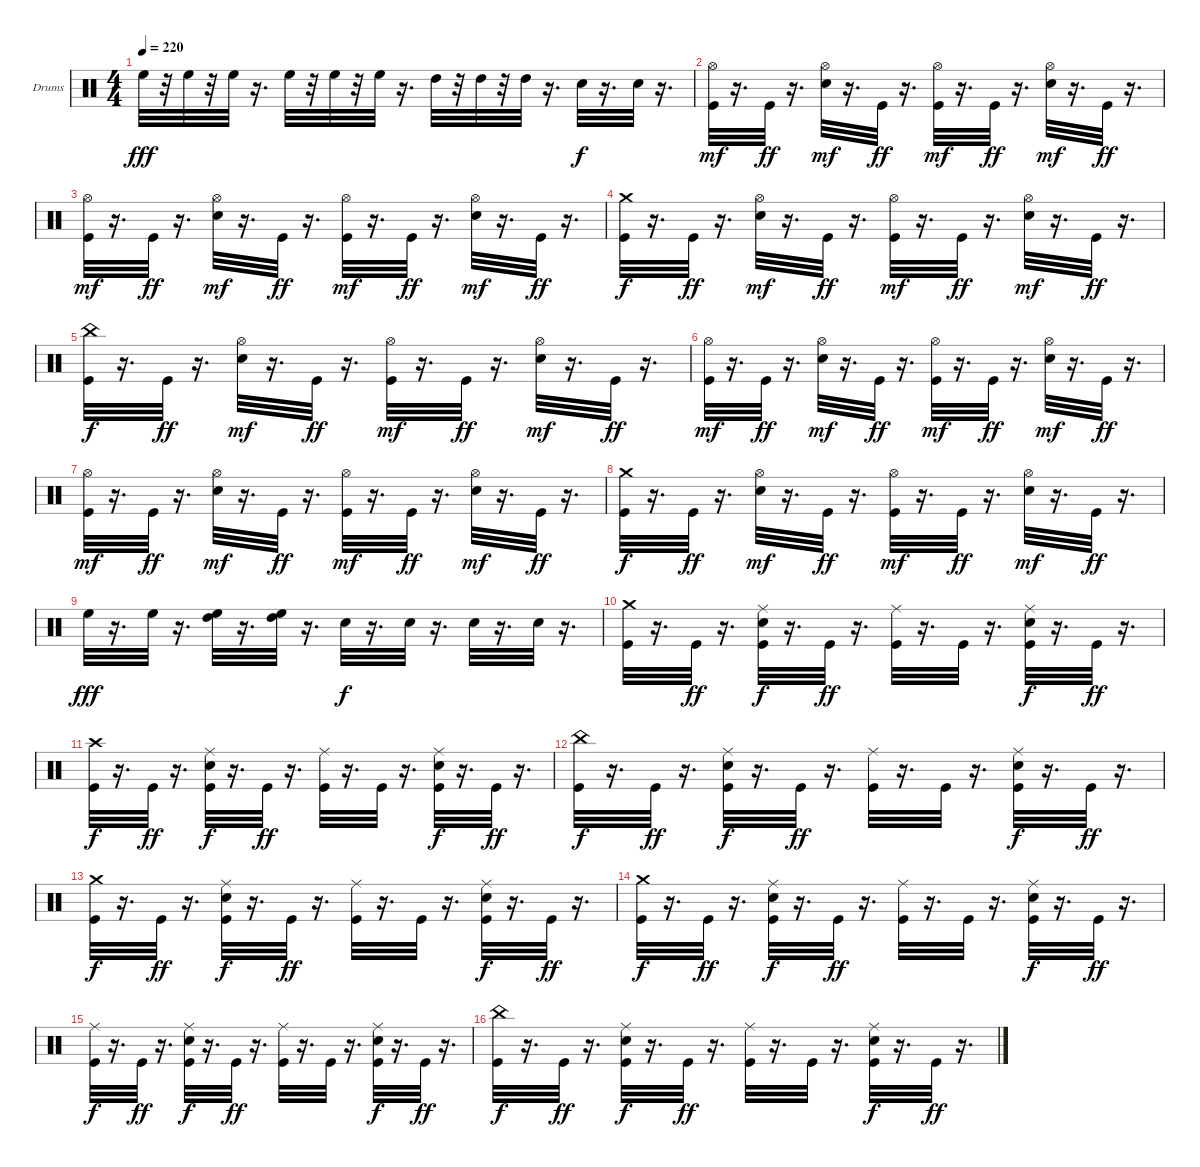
\defaultSystemsLayout 4
\bracketExtendMode groupsimilarinstruments
\firstSystemTrackNameOrientation horizontal
\otherSystemsTrackNameOrientation horizontal
\track ("Дмитрий Кривенков" "Drums") {instrument percussion}
\staff {score}
\articulation defaults
\ts (4 4)
\tempo 220
\clef neutral
\ks c "High Floor Tom (hit)".32{dy fff}
r.32 "High Floor Tom (hit)".32 r.32 "High Floor Tom (hit)".32 r.16{d} "High Floor Tom (hit)".32 r.32 "High Floor Tom (hit)".32 r.32 "High Floor Tom (hit)".32 r.16{d} "High Tom (hit)".32 r.32 "High Tom (hit)".32 r.32 "High Tom (hit)".32 r.16{d} "Snare (hit) 2".32{dy f} r.16{d} "Snare (hit) 2".32 r.16{d} |
("Hi-Hat (open)" "Kick (hit)").32{dy mf} r.16{d} "Kick (hit)".32{dy ff} r.16{d} ("Hi-Hat (open)" "Snare (hit) 2").32{dy mf} r.16{d} "Kick (hit)".32{dy ff} r.16{d} ("Hi-Hat (open)" "Kick (hit)").32{dy mf} r.16{d} "Kick (hit)".32{dy ff} r.16{d} ("Hi-Hat (open)" "Snare (hit) 2").32{dy mf} r.16{d} "Kick (hit)".32{dy ff} r.16{d} |
("Hi-Hat (open)" "Kick (hit)").32{dy mf} r.16{d} "Kick (hit)".32{dy ff} r.16{d} ("Hi-Hat (open)" "Snare (hit) 2").32{dy mf} r.16{d} "Kick (hit)".32{dy ff} r.16{d} ("Hi-Hat (open)" "Kick (hit)").32{dy mf} r.16{d} "Kick (hit)".32{dy ff} r.16{d} ("Hi-Hat (open)" "Snare (hit) 2").32{dy mf} r.16{d} "Kick (hit)".32{dy ff} r.16{d} |
("Crash medium (hit)" "Kick (hit)").32{dy f} r.16{d} "Kick (hit)".32{dy ff} r.16{d} ("Hi-Hat (open)" "Snare (hit) 2").32{dy mf} r.16{d} "Kick (hit)".32{dy ff} r.16{d} ("Hi-Hat (open)" "Kick (hit)").32{dy mf} r.16{d} "Kick (hit)".32{dy ff} r.16{d} ("Hi-Hat (open)" "Snare (hit) 2").32{dy mf} r.16{d} "Kick (hit)".32{dy ff} r.16{d} |
("China (hit)" "Kick (hit)").32{dy f} r.16{d} "Kick (hit)".32{dy ff} r.16{d} ("Hi-Hat (open)" "Snare (hit) 2").32{dy mf} r.16{d} "Kick (hit)".32{dy ff} r.16{d} ("Hi-Hat (open)" "Kick (hit)").32{dy mf} r.16{d} "Kick (hit)".32{dy ff} r.16{d} ("Hi-Hat (open)" "Snare (hit) 2").32{dy mf} r.16{d} "Kick (hit)".32{dy ff} r.16{d} |
("Hi-Hat (open)" "Kick (hit)").32{dy mf} r.16{d} "Kick (hit)".32{dy ff} r.16{d} ("Hi-Hat (open)" "Snare (hit) 2").32{dy mf} r.16{d} "Kick (hit)".32{dy ff} r.16{d} ("Hi-Hat (open)" "Kick (hit)").32{dy mf} r.16{d} "Kick (hit)".32{dy ff} r.16{d} ("Hi-Hat (open)" "Snare (hit) 2").32{dy mf} r.16{d} "Kick (hit)".32{dy ff} r.16{d} |
("Hi-Hat (open)" "Kick (hit)").32{dy mf} r.16{d} "Kick (hit)".32{dy ff} r.16{d} ("Hi-Hat (open)" "Snare (hit) 2").32{dy mf} r.16{d} "Kick (hit)".32{dy ff} r.16{d} ("Hi-Hat (open)" "Kick (hit)").32{dy mf} r.16{d} "Kick (hit)".32{dy ff} r.16{d} ("Hi-Hat (open)" "Snare (hit) 2").32{dy mf} r.16{d} "Kick (hit)".32{dy ff} r.16{d} |
("Crash medium (hit)" "Kick (hit)").32{dy f} r.16{d} "Kick (hit)".32{dy ff} r.16{d} ("Hi-Hat (open)" "Snare (hit) 2").32{dy mf} r.16{d} "Kick (hit)".32{dy ff} r.16{d} ("Hi-Hat (open)" "Kick (hit)").32{dy mf} r.16{d} "Kick (hit)".32{dy ff} r.16{d} ("Hi-Hat (open)" "Snare (hit) 2").32{dy mf} r.16{d} "Kick (hit)".32{dy ff} r.16{d} |
"High Floor Tom (hit)".32{dy fff} r.16{d} "High Floor Tom (hit)".32 r.16{d} ("High Tom (hit)" "High Floor Tom (hit)").32 r.16{d} ("High Tom (hit)" "High Floor Tom (hit)").32 r.16{d} "Snare (hit) 2".32{dy f} r.16{d} "Snare (hit) 2".32 r.16{d} "Snare (hit) 2".32 r.16{d} "Snare (hit) 2".32 r.16{d} |
("Crash medium (hit)" "Kick (hit)").32 r.16{d} "Kick (hit)".32{dy ff} r.16{d} ("Snare (hit) 2" "Kick (hit)" "Ride (middle)").32{dy f} r.16{d} "Kick (hit)".32{dy ff} r.16{d} ("Kick (hit)" "Ride (middle)").32 r.16{d} "Kick (hit)".32 r.16{d} ("Ride (middle)" "Snare (hit) 2" "Kick (hit)").32{dy f} r.16{d} "Kick (hit)".32{dy ff} r.16{d} |
("Crash high (hit)" "Kick (hit)").32{dy f} r.16{d} "Kick (hit)".32{dy ff} r.16{d} ("Snare (hit) 2" "Kick (hit)" "Ride (middle)").32{dy f} r.16{d} "Kick (hit)".32{dy ff} r.16{d} ("Kick (hit)" "Ride (middle)").32 r.16{d} "Kick (hit)".32 r.16{d} ("Ride (middle)" "Snare (hit) 2" "Kick (hit)").32{dy f} r.16{d} "Kick (hit)".32{dy ff} r.16{d} |
("China (hit)" "Kick (hit)").32{dy f} r.16{d} "Kick (hit)".32{dy ff} r.16{d} ("Snare (hit) 2" "Kick (hit)" "Ride (middle)").32{dy f} r.16{d} "Kick (hit)".32{dy ff} r.16{d} ("Kick (hit)" "Ride (middle)").32 r.16{d} "Kick (hit)".32 r.16{d} ("Ride (middle)" "Snare (hit) 2" "Kick (hit)").32{dy f} r.16{d} "Kick (hit)".32{dy ff} r.16{d} |
("Crash medium (hit)" "Kick (hit)").32{dy f} r.16{d} "Kick (hit)".32{dy ff} r.16{d} ("Snare (hit) 2" "Kick (hit)" "Ride (middle)").32{dy f} r.16{d} "Kick (hit)".32{dy ff} r.16{d} ("Kick (hit)" "Ride (middle)").32 r.16{d} "Kick (hit)".32 r.16{d} ("Ride (middle)" "Snare (hit) 2" "Kick (hit)").32{dy f} r.16{d} "Kick (hit)".32{dy ff} r.16{d} |
("Crash medium (hit)" "Kick (hit)").32{dy f} r.16{d} "Kick (hit)".32{dy ff} r.16{d} ("Snare (hit) 2" "Kick (hit)" "Ride (middle)").32{dy f} r.16{d} "Kick (hit)".32{dy ff} r.16{d} ("Kick (hit)" "Ride (middle)").32 r.16{d} "Kick (hit)".32 r.16{d} ("Ride (middle)" "Snare (hit) 2" "Kick (hit)").32{dy f} r.16{d} "Kick (hit)".32{dy ff} r.16{d} |
("Ride (middle)" "Kick (hit)").32{dy f} r.16{d} "Kick (hit)".32{dy ff} r.16{d} ("Snare (hit) 2" "Kick (hit)" "Ride (middle)").32{dy f} r.16{d} "Kick (hit)".32{dy ff} r.16{d} ("Kick (hit)" "Ride (middle)").32 r.16{d} "Kick (hit)".32 r.16{d} ("Ride (middle)" "Snare (hit) 2" "Kick (hit)").32{dy f} r.16{d} "Kick (hit)".32{dy ff} r.16{d} |
("China (hit)" "Kick (hit)").32{dy f} r.16{d} "Kick (hit)".32{dy ff} r.16{d} ("Snare (hit) 2" "Kick (hit)" "Ride (middle)").32{dy f} r.16{d} "Kick (hit)".32{dy ff} r.16{d} ("Kick (hit)" "Ride (middle)").32 r.16{d} "Kick (hit)".32 r.16{d} ("Ride (middle)" "Snare (hit) 2" "Kick (hit)").32{dy f} r.16{d} "Kick (hit)".32{dy ff} r.16{d}
